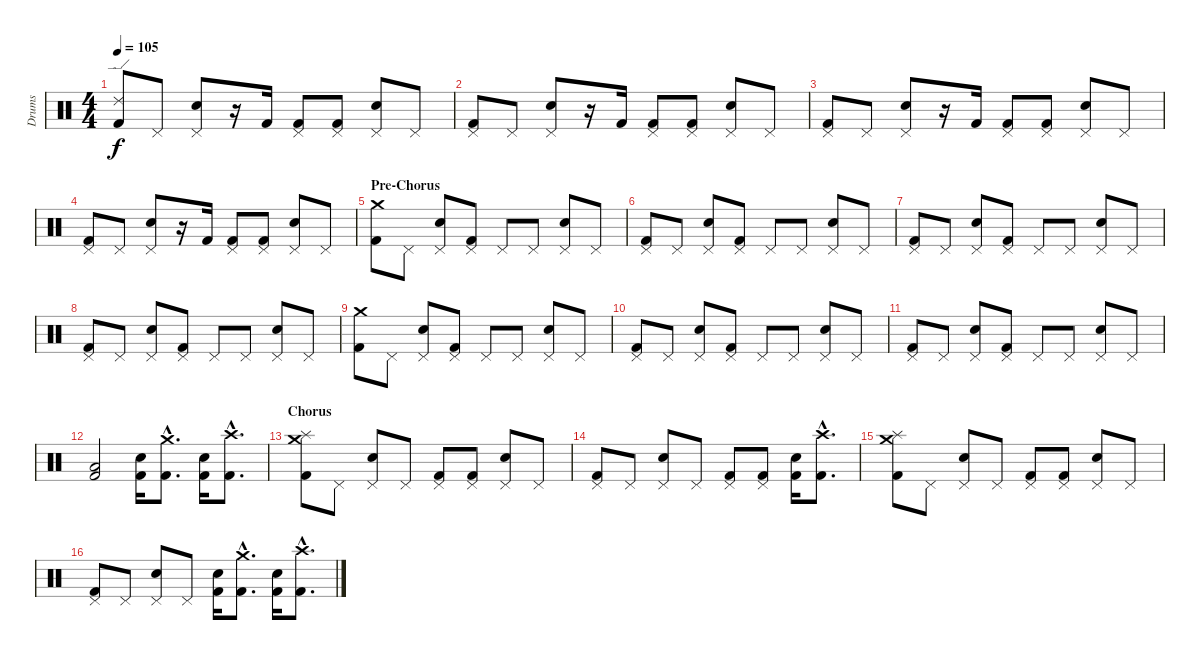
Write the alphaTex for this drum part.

\track ("Drums" "Drums") {instrument percussion}
\staff {score}
\articulation defaults
\ts (4 4)
\tempo 105
\clef neutral
\ks c
("Ride (edge) 2" "Kick (hit) 2").8{dy f} "Pedal Hi-Hat (hit)".8 ("Pedal Hi-Hat (hit)" "Electric Snare (hit)").8 r.16 "Kick (hit) 2".16 ("Pedal Hi-Hat (hit)" "Kick (hit) 2").8 ("Pedal Hi-Hat (hit)" "Kick (hit) 2").8 ("Pedal Hi-Hat (hit)" "Electric Snare (hit)").8 "Pedal Hi-Hat (hit)".8 |
("Pedal Hi-Hat (hit)" "Kick (hit) 2").8 "Pedal Hi-Hat (hit)".8 ("Pedal Hi-Hat (hit)" "Electric Snare (hit)").8 r.16 "Kick (hit) 2".16 ("Pedal Hi-Hat (hit)" "Kick (hit) 2").8 ("Pedal Hi-Hat (hit)" "Kick (hit) 2").8 ("Pedal Hi-Hat (hit)" "Electric Snare (hit)").8 "Pedal Hi-Hat (hit)".8 |
("Pedal Hi-Hat (hit)" "Kick (hit) 2").8 "Pedal Hi-Hat (hit)".8 ("Pedal Hi-Hat (hit)" "Electric Snare (hit)").8 r.16 "Kick (hit) 2".16 ("Pedal Hi-Hat (hit)" "Kick (hit) 2").8 ("Pedal Hi-Hat (hit)" "Kick (hit) 2").8 ("Pedal Hi-Hat (hit)" "Electric Snare (hit)").8 "Pedal Hi-Hat (hit)".8 |
("Pedal Hi-Hat (hit)" "Kick (hit) 2").8 "Pedal Hi-Hat (hit)".8 ("Pedal Hi-Hat (hit)" "Electric Snare (hit)").8 r.16 "Kick (hit) 2".16 ("Pedal Hi-Hat (hit)" "Kick (hit) 2").8 ("Pedal Hi-Hat (hit)" "Kick (hit) 2").8 ("Pedal Hi-Hat (hit)" "Electric Snare (hit)").8 "Pedal Hi-Hat (hit)".8 |
\section ("" "Pre-Chorus")
("Crash medium (hit)" "Kick (hit) 2").8 "Pedal Hi-Hat (hit)".8 ("Pedal Hi-Hat (hit)" "Electric Snare (hit)").8 ("Pedal Hi-Hat (hit)" "Kick (hit) 2").8 "Pedal Hi-Hat (hit)".8 "Pedal Hi-Hat (hit)".8 ("Pedal Hi-Hat (hit)" "Electric Snare (hit)").8 "Pedal Hi-Hat (hit)".8 |
("Pedal Hi-Hat (hit)" "Kick (hit) 2").8 "Pedal Hi-Hat (hit)".8 ("Pedal Hi-Hat (hit)" "Electric Snare (hit)").8 ("Pedal Hi-Hat (hit)" "Kick (hit) 2").8 "Pedal Hi-Hat (hit)".8 "Pedal Hi-Hat (hit)".8 ("Pedal Hi-Hat (hit)" "Electric Snare (hit)").8 "Pedal Hi-Hat (hit)".8 |
("Pedal Hi-Hat (hit)" "Kick (hit) 2").8 "Pedal Hi-Hat (hit)".8 ("Pedal Hi-Hat (hit)" "Electric Snare (hit)").8 ("Pedal Hi-Hat (hit)" "Kick (hit) 2").8 "Pedal Hi-Hat (hit)".8 "Pedal Hi-Hat (hit)".8 ("Pedal Hi-Hat (hit)" "Electric Snare (hit)").8 "Pedal Hi-Hat (hit)".8 |
("Pedal Hi-Hat (hit)" "Kick (hit) 2").8 "Pedal Hi-Hat (hit)".8 ("Pedal Hi-Hat (hit)" "Electric Snare (hit)").8 ("Pedal Hi-Hat (hit)" "Kick (hit) 2").8 "Pedal Hi-Hat (hit)".8 "Pedal Hi-Hat (hit)".8 ("Pedal Hi-Hat (hit)" "Electric Snare (hit)").8 "Pedal Hi-Hat (hit)".8 |
("Crash medium (hit)" "Kick (hit) 2").8 "Pedal Hi-Hat (hit)".8 ("Pedal Hi-Hat (hit)" "Electric Snare (hit)").8 ("Pedal Hi-Hat (hit)" "Kick (hit) 2").8 "Pedal Hi-Hat (hit)".8 "Pedal Hi-Hat (hit)".8 ("Pedal Hi-Hat (hit)" "Electric Snare (hit)").8 "Pedal Hi-Hat (hit)".8 |
("Pedal Hi-Hat (hit)" "Kick (hit) 2").8 "Pedal Hi-Hat (hit)".8 ("Pedal Hi-Hat (hit)" "Electric Snare (hit)").8 ("Pedal Hi-Hat (hit)" "Kick (hit) 2").8 "Pedal Hi-Hat (hit)".8 "Pedal Hi-Hat (hit)".8 ("Pedal Hi-Hat (hit)" "Electric Snare (hit)").8 "Pedal Hi-Hat (hit)".8 |
("Pedal Hi-Hat (hit)" "Kick (hit) 2").8 "Pedal Hi-Hat (hit)".8 ("Pedal Hi-Hat (hit)" "Electric Snare (hit)").8 ("Pedal Hi-Hat (hit)" "Kick (hit) 2").8 "Pedal Hi-Hat (hit)".8 "Pedal Hi-Hat (hit)".8 ("Pedal Hi-Hat (hit)" "Electric Snare (hit)").8 "Pedal Hi-Hat (hit)".8 |
("Low Floor Tom (hit)" "Kick (hit) 2").2 ("Electric Snare (hit)" "Kick (hit) 2").16 ("Crash medium (hit)"{hac} "Kick (hit) 2"{hac}).8{d} ("Electric Snare (hit)" "Kick (hit) 2").16 ("Crash high (hit)"{hac} "Kick (hit) 2"{hac}).8{d} |
\section ("" "Chorus")
("Crash medium (hit)" "Splash (hit)" "Kick (hit) 2").8 "Pedal Hi-Hat (hit)".8 ("Pedal Hi-Hat (hit)" "Electric Snare (hit)").8 "Pedal Hi-Hat (hit)".8 ("Pedal Hi-Hat (hit)" "Kick (hit) 2").8 ("Pedal Hi-Hat (hit)" "Kick (hit) 2").8 ("Pedal Hi-Hat (hit)" "Electric Snare (hit)").8 "Pedal Hi-Hat (hit)".8 |
("Pedal Hi-Hat (hit)" "Kick (hit) 2").8 "Pedal Hi-Hat (hit)".8 ("Pedal Hi-Hat (hit)" "Electric Snare (hit)").8 "Pedal Hi-Hat (hit)".8 ("Pedal Hi-Hat (hit)" "Kick (hit) 2").8 ("Pedal Hi-Hat (hit)" "Kick (hit) 2").8 ("Electric Snare (hit)" "Kick (hit) 2").16 ("Crash high (hit)"{hac} "Kick (hit) 2"{hac}).8{d} |
("Crash medium (hit)" "Splash (hit)" "Kick (hit) 2").8 "Pedal Hi-Hat (hit)".8 ("Pedal Hi-Hat (hit)" "Electric Snare (hit)").8 "Pedal Hi-Hat (hit)".8 ("Pedal Hi-Hat (hit)" "Kick (hit) 2").8 ("Pedal Hi-Hat (hit)" "Kick (hit) 2").8 ("Pedal Hi-Hat (hit)" "Electric Snare (hit)").8 "Pedal Hi-Hat (hit)".8 |
("Pedal Hi-Hat (hit)" "Kick (hit) 2").8 "Pedal Hi-Hat (hit)".8 ("Pedal Hi-Hat (hit)" "Electric Snare (hit)").8 "Pedal Hi-Hat (hit)".8 ("Electric Snare (hit)" "Kick (hit) 2").16 ("Crash medium (hit)"{hac} "Kick (hit) 2"{hac}).8{d} ("Electric Snare (hit)" "Kick (hit) 2").16 ("Crash high (hit)"{hac} "Kick (hit) 2"{hac}).8{d}
